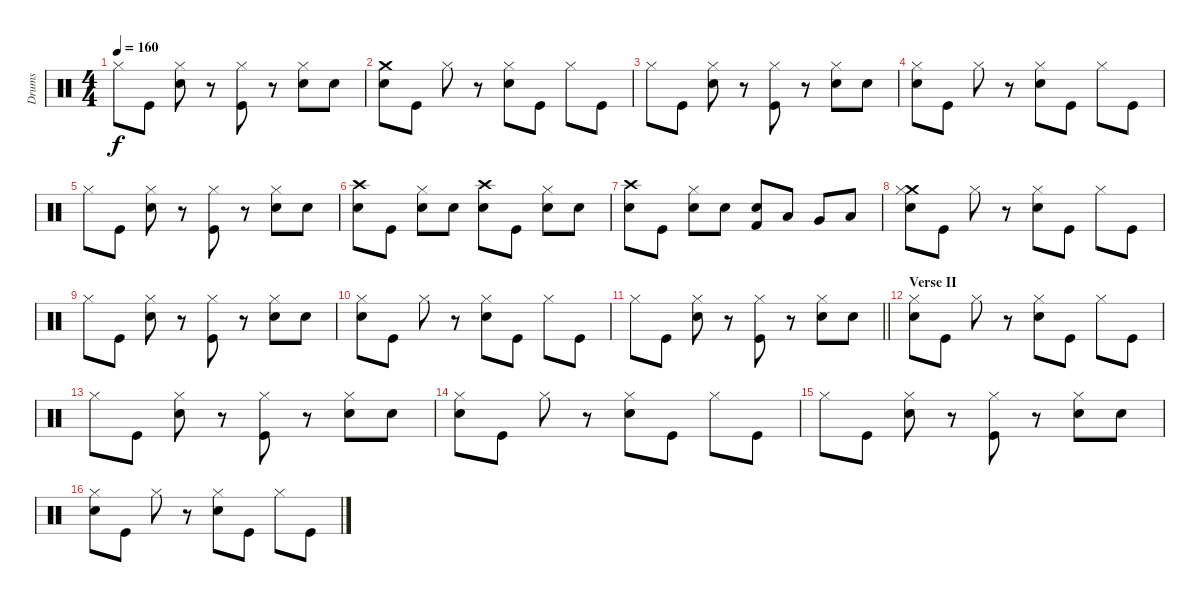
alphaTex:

\track ("Drums" "Drums") {instrument percussion}
\staff {score}
\articulation defaults
\ts (4 4)
\tempo 160
\clef neutral
\ks c "Hi-Hat (closed)".8{dy f} "Kick (hit)".8
("Hi-Hat (closed)" "Electric Snare (hit)").8 r.8 ("Hi-Hat (closed)" "Kick (hit)").8 r.8 ("Hi-Hat (closed)" "Electric Snare (hit)").8 "Snare (hit)".8 |
("Crash medium (hit)" "Electric Snare (hit)").8 "Kick (hit)".8 "Hi-Hat (closed)".8 r.8 ("Hi-Hat (closed)" "Electric Snare (hit)").8 "Kick (hit)".8 "Hi-Hat (closed)".8 "Kick (hit)".8 |
"Hi-Hat (closed)".8 "Kick (hit)".8 ("Hi-Hat (closed)" "Electric Snare (hit)").8 r.8 ("Hi-Hat (closed)" "Kick (hit)").8 r.8 ("Hi-Hat (closed)" "Electric Snare (hit)").8 "Snare (hit)".8 |
("Hi-Hat (closed)" "Electric Snare (hit)").8 "Kick (hit)".8 "Hi-Hat (closed)".8 r.8 ("Hi-Hat (closed)" "Electric Snare (hit)").8 "Kick (hit)".8 "Hi-Hat (closed)".8 "Kick (hit)".8 |
"Hi-Hat (closed)".8 "Kick (hit)".8 ("Hi-Hat (closed)" "Electric Snare (hit)").8 r.8 ("Hi-Hat (closed)" "Kick (hit)").8 r.8 ("Hi-Hat (closed)" "Electric Snare (hit)").8 "Snare (hit)".8 |
("Crash high (hit)" "Electric Snare (hit)").8 "Kick (hit)".8 ("Hi-Hat (closed)" "Snare (hit)").8 "Snare (hit)".8 ("Crash high (hit)" "Electric Snare (hit)").8 "Kick (hit)".8 ("Hi-Hat (closed)" "Snare (hit)").8 "Snare (hit)".8 |
("Crash high (hit)" "Electric Snare (hit)").8 "Kick (hit)".8 ("Hi-Hat (closed)" "Snare (hit)").8 "Snare (hit)".8 ("Electric Snare (hit)" "Kick (hit) 2").8 "Low Tom (hit)".8 "Very Low Tom (hit)".8 "Low Floor Tom (hit)".8 |
("Crash medium (hit)" "Hi-Hat (closed)" "Electric Snare (hit)").8 "Kick (hit)".8 "Hi-Hat (closed)".8 r.8 ("Hi-Hat (closed)" "Electric Snare (hit)").8 "Kick (hit)".8 "Hi-Hat (closed)".8 "Kick (hit)".8 |
"Hi-Hat (closed)".8 "Kick (hit)".8 ("Hi-Hat (closed)" "Electric Snare (hit)").8 r.8 ("Hi-Hat (closed)" "Kick (hit)").8 r.8 ("Hi-Hat (closed)" "Electric Snare (hit)").8 "Snare (hit)".8 |
("Hi-Hat (closed)" "Electric Snare (hit)").8 "Kick (hit)".8 "Hi-Hat (closed)".8 r.8 ("Hi-Hat (closed)" "Electric Snare (hit)").8 "Kick (hit)".8 "Hi-Hat (closed)".8 "Kick (hit)".8 |
\barLineRight lightlight "Hi-Hat (closed)".8 "Kick (hit)".8
("Hi-Hat (closed)" "Electric Snare (hit)").8 r.8 ("Hi-Hat (closed)" "Kick (hit)").8 r.8 ("Hi-Hat (closed)" "Electric Snare (hit)").8 "Snare (hit)".8 |
\section ("" "Verse II")
("Hi-Hat (closed)" "Electric Snare (hit)").8 "Kick (hit)".8 "Hi-Hat (closed)".8 r.8 ("Hi-Hat (closed)" "Electric Snare (hit)").8 "Kick (hit)".8 "Hi-Hat (closed)".8 "Kick (hit)".8 |
"Hi-Hat (closed)".8 "Kick (hit)".8 ("Hi-Hat (closed)" "Electric Snare (hit)").8 r.8 ("Hi-Hat (closed)" "Kick (hit)").8 r.8 ("Hi-Hat (closed)" "Electric Snare (hit)").8 "Snare (hit)".8 |
("Hi-Hat (closed)" "Electric Snare (hit)").8 "Kick (hit)".8 "Hi-Hat (closed)".8 r.8 ("Hi-Hat (closed)" "Electric Snare (hit)").8 "Kick (hit)".8 "Hi-Hat (closed)".8 "Kick (hit)".8 |
"Hi-Hat (closed)".8 "Kick (hit)".8 ("Hi-Hat (closed)" "Electric Snare (hit)").8 r.8 ("Hi-Hat (closed)" "Kick (hit)").8 r.8 ("Hi-Hat (closed)" "Electric Snare (hit)").8 "Snare (hit)".8 |
("Hi-Hat (closed)" "Electric Snare (hit)").8 "Kick (hit)".8 "Hi-Hat (closed)".8 r.8 ("Hi-Hat (closed)" "Electric Snare (hit)").8 "Kick (hit)".8 "Hi-Hat (closed)".8 "Kick (hit)".8
